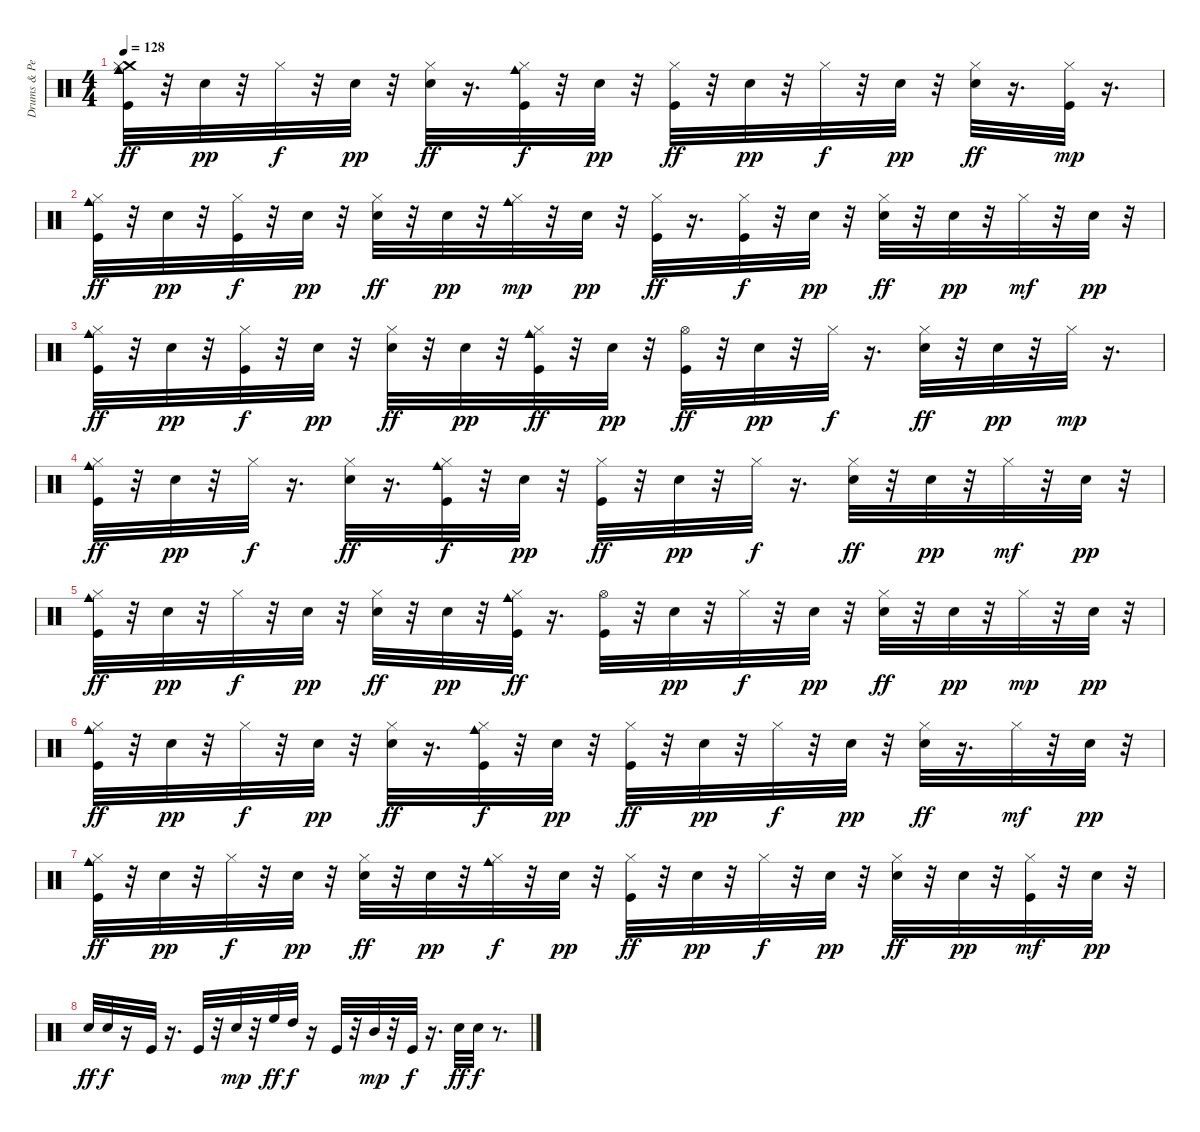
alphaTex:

\track ("Drums & Percussion" "Drums & Pe") {instrument percussion}
\staff {score}
\articulation defaults
\ts (4 4)
\tempo 128
\clef neutral
\ks c
("Crash medium (hit)" "Kick (hit)" "Hi-Hat (closed)" "Cowbell medium (hit)").32{dy ff} r.32 "Electric Snare (hit)".32{dy pp} r.32 "Hi-Hat (closed)".32{dy f} r.32 "Electric Snare (hit)".32{dy pp} r.32 ("Hi-Hat (closed)" "Electric Snare (hit)").32{dy ff} r.16{d} ("Kick (hit)" "Hi-Hat (closed)" "Cowbell medium (hit)").32{dy f} r.32 "Electric Snare (hit)".32{dy pp} r.32 ("Kick (hit)" "Hi-Hat (closed)").32{dy ff} r.32 "Electric Snare (hit)".32{dy pp} r.32 "Hi-Hat (closed)".32{dy f} r.32 "Electric Snare (hit)".32{dy pp} r.32 ("Hi-Hat (closed)" "Electric Snare (hit)").32{dy ff} r.16{d} ("Kick (hit)" "Hi-Hat (closed)").32{dy mp} r.16{d} |
("Kick (hit)" "Hi-Hat (closed)" "Cowbell medium (hit)").32{dy ff} r.32 "Electric Snare (hit)".32{dy pp} r.32 ("Kick (hit)" "Hi-Hat (closed)").32{dy f} r.32 "Electric Snare (hit)".32{dy pp} r.32 ("Hi-Hat (closed)" "Electric Snare (hit)").32{dy ff} r.32 "Electric Snare (hit)".32{dy pp} r.32 ("Hi-Hat (closed)" "Cowbell medium (hit)").32{dy mp} r.32 "Electric Snare (hit)".32{dy pp} r.32 ("Kick (hit)" "Hi-Hat (closed)").32{dy ff} r.16{d} ("Kick (hit)" "Hi-Hat (closed)").32{dy f} r.32 "Electric Snare (hit)".32{dy pp} r.32 ("Hi-Hat (closed)" "Electric Snare (hit)").32{dy ff} r.32 "Electric Snare (hit)".32{dy pp} r.32 "Hi-Hat (closed)".32{dy mf} r.32 "Electric Snare (hit)".32{dy pp} r.32 |
("Kick (hit)" "Hi-Hat (closed)" "Cowbell medium (hit)").32{dy ff} r.32 "Electric Snare (hit)".32{dy pp} r.32 ("Kick (hit)" "Hi-Hat (closed)").32{dy f} r.32 "Electric Snare (hit)".32{dy pp} r.32 ("Hi-Hat (closed)" "Electric Snare (hit)").32{dy ff} r.32 "Electric Snare (hit)".32{dy pp} r.32 ("Kick (hit)" "Hi-Hat (closed)" "Cowbell medium (hit)").32{dy ff} r.32 "Electric Snare (hit)".32{dy pp} r.32 ("Kick (hit)" "Hi-Hat (open)").32{dy ff} r.32 "Electric Snare (hit)".32{dy pp} r.32 "Hi-Hat (closed)".32{dy f} r.16{d} ("Hi-Hat (closed)" "Electric Snare (hit)").32{dy ff} r.32 "Electric Snare (hit)".32{dy pp} r.32 "Hi-Hat (closed)".32{dy mp} r.16{d} |
("Kick (hit)" "Hi-Hat (closed)" "Cowbell medium (hit)").32{dy ff} r.32 "Electric Snare (hit)".32{dy pp} r.32 "Hi-Hat (closed)".32{dy f} r.16{d} ("Hi-Hat (closed)" "Electric Snare (hit)").32{dy ff} r.16{d} ("Kick (hit)" "Hi-Hat (closed)" "Cowbell medium (hit)").32{dy f} r.32 "Electric Snare (hit)".32{dy pp} r.32 ("Kick (hit)" "Hi-Hat (closed)").32{dy ff} r.32 "Electric Snare (hit)".32{dy pp} r.32 "Hi-Hat (closed)".32{dy f} r.16{d} ("Hi-Hat (closed)" "Electric Snare (hit)").32{dy ff} r.32 "Electric Snare (hit)".32{dy pp} r.32 "Hi-Hat (closed)".32{dy mf} r.32 "Electric Snare (hit)".32{dy pp} r.32 |
("Kick (hit)" "Hi-Hat (closed)" "Cowbell medium (hit)").32{dy ff} r.32 "Electric Snare (hit)".32{dy pp} r.32 "Hi-Hat (closed)".32{dy f} r.32 "Electric Snare (hit)".32{dy pp} r.32 ("Hi-Hat (closed)" "Electric Snare (hit)").32{dy ff} r.32 "Electric Snare (hit)".32{dy pp} r.32 ("Kick (hit)" "Hi-Hat (closed)" "Cowbell medium (hit)").32{dy ff} r.16{d} ("Kick (hit)" "Hi-Hat (open)").32 r.32 "Electric Snare (hit)".32{dy pp} r.32 "Hi-Hat (closed)".32{dy f} r.32 "Electric Snare (hit)".32{dy pp} r.32 ("Hi-Hat (closed)" "Electric Snare (hit)").32{dy ff} r.32 "Electric Snare (hit)".32{dy pp} r.32 "Hi-Hat (closed)".32{dy mp} r.32 "Electric Snare (hit)".32{dy pp} r.32 |
("Kick (hit)" "Hi-Hat (closed)" "Cowbell medium (hit)").32{dy ff} r.32 "Electric Snare (hit)".32{dy pp} r.32 "Hi-Hat (closed)".32{dy f} r.32 "Electric Snare (hit)".32{dy pp} r.32 ("Hi-Hat (closed)" "Electric Snare (hit)").32{dy ff} r.16{d} ("Kick (hit)" "Hi-Hat (closed)" "Cowbell medium (hit)").32{dy f} r.32 "Electric Snare (hit)".32{dy pp} r.32 ("Kick (hit)" "Hi-Hat (closed)").32{dy ff} r.32 "Electric Snare (hit)".32{dy pp} r.32 "Hi-Hat (closed)".32{dy f} r.32 "Electric Snare (hit)".32{dy pp} r.32 ("Hi-Hat (closed)" "Electric Snare (hit)").32{dy ff} r.16{d} "Hi-Hat (closed)".32{dy mf} r.32 "Electric Snare (hit)".32{dy pp} r.32 |
("Kick (hit)" "Hi-Hat (closed)" "Cowbell medium (hit)").32{dy ff} r.32 "Electric Snare (hit)".32{dy pp} r.32 "Hi-Hat (closed)".32{dy f} r.32 "Electric Snare (hit)".32{dy pp} r.32 ("Hi-Hat (closed)" "Electric Snare (hit)").32{dy ff} r.32 "Electric Snare (hit)".32{dy pp} r.32 ("Hi-Hat (closed)" "Cowbell medium (hit)").32{dy f} r.32 "Electric Snare (hit)".32{dy pp} r.32 ("Kick (hit)" "Hi-Hat (closed)").32{dy ff} r.32 "Electric Snare (hit)".32{dy pp} r.32 "Hi-Hat (closed)".32{dy f} r.32 "Electric Snare (hit)".32{dy pp} r.32 ("Hi-Hat (closed)" "Electric Snare (hit)").32{dy ff} r.32 "Electric Snare (hit)".32{dy pp} r.32 ("Kick (hit)" "Hi-Hat (closed)").32{dy mf} r.32 "Electric Snare (hit)".32{dy pp} r.32 |
"Electric Snare (hit)".32{dy ff} "Electric Snare (hit)".32{dy f} r.16 "Kick (hit)".32 r.16{d} "Kick (hit)".32 r.32 "Electric Snare (hit)".32{dy mp} r.32 "High Floor Tom (hit)".32{dy ff} "High Tom (hit)".32{dy f} r.16 "Kick (hit)".32 r.32 "Mid Tom (hit)".32{dy mp} r.32 "Kick (hit)".32{dy f} r.16{d} "Electric Snare (hit)".32{dy ff} "Electric Snare (hit)".32{dy f} r.8{d}
